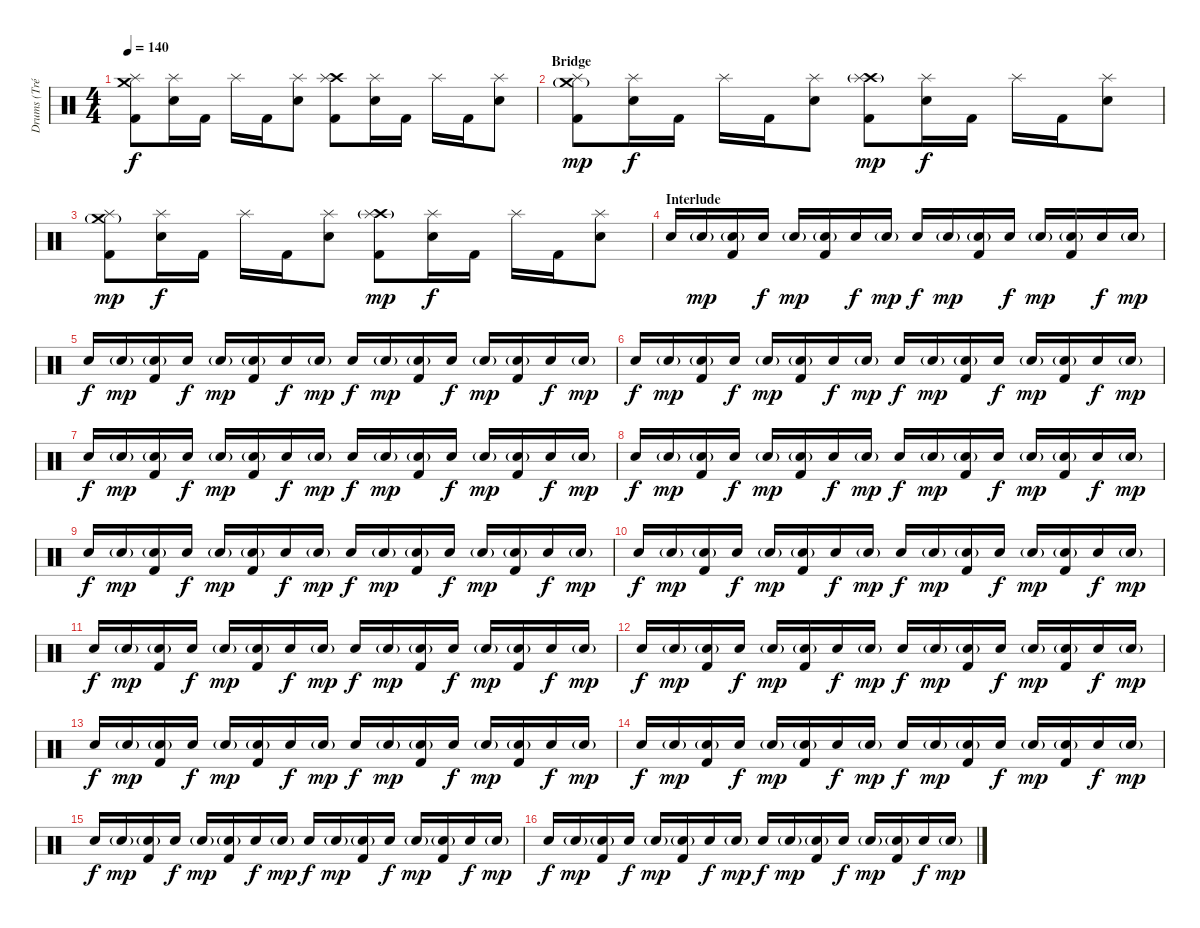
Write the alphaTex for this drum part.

\track ("Drums (Tré)" "Drums (Tré") {instrument percussion}
\staff {score}
\articulation defaults
\ts (4 4)
\tempo 140
\clef neutral
\ks c
("Crash medium (hit)" "Splash (hit)" "Kick (hit) 2").8{dy f} ("Splash (hit)" "Electric Snare (hit)").16 "Kick (hit) 2".16 "Splash (hit)".16 "Kick (hit) 2".16 ("Splash (hit)" "Electric Snare (hit)").8 ("Crash high (hit)" "Splash (hit)" "Kick (hit) 2").8 ("Splash (hit)" "Electric Snare (hit)").16 "Kick (hit) 2".16 "Splash (hit)".16 "Kick (hit) 2".16 ("Splash (hit)" "Electric Snare (hit)").8 |
\section ("" "Bridge")
("Crash medium (hit)"{g} "Splash (hit)" "Kick (hit) 2").8{dy mp} ("Splash (hit)" "Electric Snare (hit)").16{dy f} "Kick (hit) 2".16 "Splash (hit)".16 "Kick (hit) 2".16 ("Splash (hit)" "Electric Snare (hit)").8 ("Crash high (hit)"{g} "Splash (hit)" "Kick (hit) 2").8{dy mp} ("Splash (hit)" "Electric Snare (hit)").16{dy f} "Kick (hit) 2".16 "Splash (hit)".16 "Kick (hit) 2".16 ("Splash (hit)" "Electric Snare (hit)").8 |
("Crash medium (hit)"{g} "Splash (hit)" "Kick (hit) 2").8{dy mp} ("Splash (hit)" "Electric Snare (hit)").16{dy f} "Kick (hit) 2".16 "Splash (hit)".16 "Kick (hit) 2".16 ("Splash (hit)" "Electric Snare (hit)").8 ("Crash high (hit)"{g} "Splash (hit)" "Kick (hit) 2").8{dy mp} ("Splash (hit)" "Electric Snare (hit)").16{dy f} "Kick (hit) 2".16 "Splash (hit)".16 "Kick (hit) 2".16 ("Splash (hit)" "Electric Snare (hit)").8 |
\section ("" "Interlude")
"Electric Snare (hit)".16 "Electric Snare (hit)"{g}.16{dy mp} ("Electric Snare (hit)"{g} "Kick (hit) 2").16 "Electric Snare (hit)".16{dy f} "Electric Snare (hit)"{g}.16{dy mp} ("Electric Snare (hit)"{g} "Kick (hit) 2").16 "Electric Snare (hit)".16{dy f} "Electric Snare (hit)"{g}.16{dy mp} "Electric Snare (hit)".16{dy f} "Electric Snare (hit)"{g}.16{dy mp} ("Electric Snare (hit)"{g} "Kick (hit) 2").16 "Electric Snare (hit)".16{dy f} "Electric Snare (hit)"{g}.16{dy mp} ("Electric Snare (hit)"{g} "Kick (hit) 2").16 "Electric Snare (hit)".16{dy f} "Electric Snare (hit)"{g}.16{dy mp} |
"Electric Snare (hit)".16{dy f} "Electric Snare (hit)"{g}.16{dy mp} ("Electric Snare (hit)"{g} "Kick (hit) 2").16 "Electric Snare (hit)".16{dy f} "Electric Snare (hit)"{g}.16{dy mp} ("Electric Snare (hit)"{g} "Kick (hit) 2").16 "Electric Snare (hit)".16{dy f} "Electric Snare (hit)"{g}.16{dy mp} "Electric Snare (hit)".16{dy f} "Electric Snare (hit)"{g}.16{dy mp} ("Electric Snare (hit)"{g} "Kick (hit) 2").16 "Electric Snare (hit)".16{dy f} "Electric Snare (hit)"{g}.16{dy mp} ("Electric Snare (hit)"{g} "Kick (hit) 2").16 "Electric Snare (hit)".16{dy f} "Electric Snare (hit)"{g}.16{dy mp} |
"Electric Snare (hit)".16{dy f} "Electric Snare (hit)"{g}.16{dy mp} ("Electric Snare (hit)"{g} "Kick (hit) 2").16 "Electric Snare (hit)".16{dy f} "Electric Snare (hit)"{g}.16{dy mp} ("Electric Snare (hit)"{g} "Kick (hit) 2").16 "Electric Snare (hit)".16{dy f} "Electric Snare (hit)"{g}.16{dy mp} "Electric Snare (hit)".16{dy f} "Electric Snare (hit)"{g}.16{dy mp} ("Electric Snare (hit)"{g} "Kick (hit) 2").16 "Electric Snare (hit)".16{dy f} "Electric Snare (hit)"{g}.16{dy mp} ("Electric Snare (hit)"{g} "Kick (hit) 2").16 "Electric Snare (hit)".16{dy f} "Electric Snare (hit)"{g}.16{dy mp} |
"Electric Snare (hit)".16{dy f} "Electric Snare (hit)"{g}.16{dy mp} ("Electric Snare (hit)"{g} "Kick (hit) 2").16 "Electric Snare (hit)".16{dy f} "Electric Snare (hit)"{g}.16{dy mp} ("Electric Snare (hit)"{g} "Kick (hit) 2").16 "Electric Snare (hit)".16{dy f} "Electric Snare (hit)"{g}.16{dy mp} "Electric Snare (hit)".16{dy f} "Electric Snare (hit)"{g}.16{dy mp} ("Electric Snare (hit)"{g} "Kick (hit) 2").16 "Electric Snare (hit)".16{dy f} "Electric Snare (hit)"{g}.16{dy mp} ("Electric Snare (hit)"{g} "Kick (hit) 2").16 "Electric Snare (hit)".16{dy f} "Electric Snare (hit)"{g}.16{dy mp} |
"Electric Snare (hit)".16{dy f} "Electric Snare (hit)"{g}.16{dy mp} ("Electric Snare (hit)"{g} "Kick (hit) 2").16 "Electric Snare (hit)".16{dy f} "Electric Snare (hit)"{g}.16{dy mp} ("Electric Snare (hit)"{g} "Kick (hit) 2").16 "Electric Snare (hit)".16{dy f} "Electric Snare (hit)"{g}.16{dy mp} "Electric Snare (hit)".16{dy f} "Electric Snare (hit)"{g}.16{dy mp} ("Electric Snare (hit)"{g} "Kick (hit) 2").16 "Electric Snare (hit)".16{dy f} "Electric Snare (hit)"{g}.16{dy mp} ("Electric Snare (hit)"{g} "Kick (hit) 2").16 "Electric Snare (hit)".16{dy f} "Electric Snare (hit)"{g}.16{dy mp} |
"Electric Snare (hit)".16{dy f} "Electric Snare (hit)"{g}.16{dy mp} ("Electric Snare (hit)"{g} "Kick (hit) 2").16 "Electric Snare (hit)".16{dy f} "Electric Snare (hit)"{g}.16{dy mp} ("Electric Snare (hit)"{g} "Kick (hit) 2").16 "Electric Snare (hit)".16{dy f} "Electric Snare (hit)"{g}.16{dy mp} "Electric Snare (hit)".16{dy f} "Electric Snare (hit)"{g}.16{dy mp} ("Electric Snare (hit)"{g} "Kick (hit) 2").16 "Electric Snare (hit)".16{dy f} "Electric Snare (hit)"{g}.16{dy mp} ("Electric Snare (hit)"{g} "Kick (hit) 2").16 "Electric Snare (hit)".16{dy f} "Electric Snare (hit)"{g}.16{dy mp} |
"Electric Snare (hit)".16{dy f} "Electric Snare (hit)"{g}.16{dy mp} ("Electric Snare (hit)"{g} "Kick (hit) 2").16 "Electric Snare (hit)".16{dy f} "Electric Snare (hit)"{g}.16{dy mp} ("Electric Snare (hit)"{g} "Kick (hit) 2").16 "Electric Snare (hit)".16{dy f} "Electric Snare (hit)"{g}.16{dy mp} "Electric Snare (hit)".16{dy f} "Electric Snare (hit)"{g}.16{dy mp} ("Electric Snare (hit)"{g} "Kick (hit) 2").16 "Electric Snare (hit)".16{dy f} "Electric Snare (hit)"{g}.16{dy mp} ("Electric Snare (hit)"{g} "Kick (hit) 2").16 "Electric Snare (hit)".16{dy f} "Electric Snare (hit)"{g}.16{dy mp} |
"Electric Snare (hit)".16{dy f} "Electric Snare (hit)"{g}.16{dy mp} ("Electric Snare (hit)"{g} "Kick (hit) 2").16 "Electric Snare (hit)".16{dy f} "Electric Snare (hit)"{g}.16{dy mp} ("Electric Snare (hit)"{g} "Kick (hit) 2").16 "Electric Snare (hit)".16{dy f} "Electric Snare (hit)"{g}.16{dy mp} "Electric Snare (hit)".16{dy f} "Electric Snare (hit)"{g}.16{dy mp} ("Electric Snare (hit)"{g} "Kick (hit) 2").16 "Electric Snare (hit)".16{dy f} "Electric Snare (hit)"{g}.16{dy mp} ("Electric Snare (hit)"{g} "Kick (hit) 2").16 "Electric Snare (hit)".16{dy f} "Electric Snare (hit)"{g}.16{dy mp} |
"Electric Snare (hit)".16{dy f} "Electric Snare (hit)"{g}.16{dy mp} ("Electric Snare (hit)"{g} "Kick (hit) 2").16 "Electric Snare (hit)".16{dy f} "Electric Snare (hit)"{g}.16{dy mp} ("Electric Snare (hit)"{g} "Kick (hit) 2").16 "Electric Snare (hit)".16{dy f} "Electric Snare (hit)"{g}.16{dy mp} "Electric Snare (hit)".16{dy f} "Electric Snare (hit)"{g}.16{dy mp} ("Electric Snare (hit)"{g} "Kick (hit) 2").16 "Electric Snare (hit)".16{dy f} "Electric Snare (hit)"{g}.16{dy mp} ("Electric Snare (hit)"{g} "Kick (hit) 2").16 "Electric Snare (hit)".16{dy f} "Electric Snare (hit)"{g}.16{dy mp} |
"Electric Snare (hit)".16{dy f} "Electric Snare (hit)"{g}.16{dy mp} ("Electric Snare (hit)"{g} "Kick (hit) 2").16 "Electric Snare (hit)".16{dy f} "Electric Snare (hit)"{g}.16{dy mp} ("Electric Snare (hit)"{g} "Kick (hit) 2").16 "Electric Snare (hit)".16{dy f} "Electric Snare (hit)"{g}.16{dy mp} "Electric Snare (hit)".16{dy f} "Electric Snare (hit)"{g}.16{dy mp} ("Electric Snare (hit)"{g} "Kick (hit) 2").16 "Electric Snare (hit)".16{dy f} "Electric Snare (hit)"{g}.16{dy mp} ("Electric Snare (hit)"{g} "Kick (hit) 2").16 "Electric Snare (hit)".16{dy f} "Electric Snare (hit)"{g}.16{dy mp} |
"Electric Snare (hit)".16{dy f} "Electric Snare (hit)"{g}.16{dy mp} ("Electric Snare (hit)"{g} "Kick (hit) 2").16 "Electric Snare (hit)".16{dy f} "Electric Snare (hit)"{g}.16{dy mp} ("Electric Snare (hit)"{g} "Kick (hit) 2").16 "Electric Snare (hit)".16{dy f} "Electric Snare (hit)"{g}.16{dy mp} "Electric Snare (hit)".16{dy f} "Electric Snare (hit)"{g}.16{dy mp} ("Electric Snare (hit)"{g} "Kick (hit) 2").16 "Electric Snare (hit)".16{dy f} "Electric Snare (hit)"{g}.16{dy mp} ("Electric Snare (hit)"{g} "Kick (hit) 2").16 "Electric Snare (hit)".16{dy f} "Electric Snare (hit)"{g}.16{dy mp} |
"Electric Snare (hit)".16{dy f} "Electric Snare (hit)"{g}.16{dy mp} ("Electric Snare (hit)"{g} "Kick (hit) 2").16 "Electric Snare (hit)".16{dy f} "Electric Snare (hit)"{g}.16{dy mp} ("Electric Snare (hit)"{g} "Kick (hit) 2").16 "Electric Snare (hit)".16{dy f} "Electric Snare (hit)"{g}.16{dy mp} "Electric Snare (hit)".16{dy f} "Electric Snare (hit)"{g}.16{dy mp} ("Electric Snare (hit)"{g} "Kick (hit) 2").16 "Electric Snare (hit)".16{dy f} "Electric Snare (hit)"{g}.16{dy mp} ("Electric Snare (hit)"{g} "Kick (hit) 2").16 "Electric Snare (hit)".16{dy f} "Electric Snare (hit)"{g}.16{dy mp} |
"Electric Snare (hit)".16{dy f} "Electric Snare (hit)"{g}.16{dy mp} ("Electric Snare (hit)"{g} "Kick (hit) 2").16 "Electric Snare (hit)".16{dy f} "Electric Snare (hit)"{g}.16{dy mp} ("Electric Snare (hit)"{g} "Kick (hit) 2").16 "Electric Snare (hit)".16{dy f} "Electric Snare (hit)"{g}.16{dy mp} "Electric Snare (hit)".16{dy f} "Electric Snare (hit)"{g}.16{dy mp} ("Electric Snare (hit)"{g} "Kick (hit) 2").16 "Electric Snare (hit)".16{dy f} "Electric Snare (hit)"{g}.16{dy mp} ("Electric Snare (hit)"{g} "Kick (hit) 2").16 "Electric Snare (hit)".16{dy f} "Electric Snare (hit)"{g}.16{dy mp}
